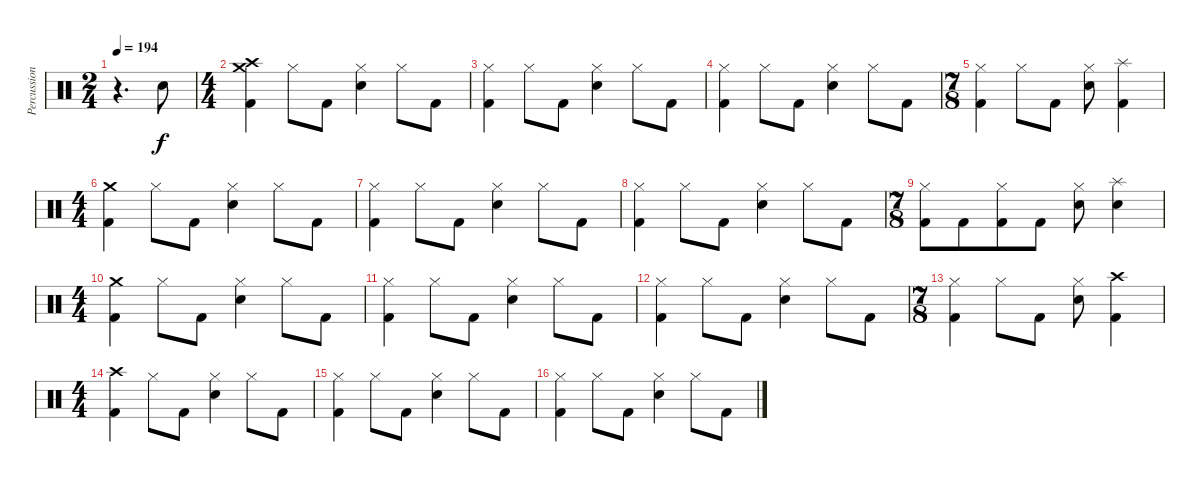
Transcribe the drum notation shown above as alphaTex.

\track ("Percussions" "Percussion") {instrument percussion}
\staff {score}
\articulation defaults
\ts (2 4)
\tempo 194
\clef neutral
\ks c
r.4{d dy f} "Electric Snare (hit)".8 |
\ts (4 4)
("Crash high (hit)" "Crash medium (hit)" "Kick (hit) 2").4 "Hi-Hat (closed)".8 "Kick (hit) 2".8 ("Hi-Hat (closed)" "Electric Snare (hit)").4 "Hi-Hat (closed)".8 "Kick (hit) 2".8 |
("Hi-Hat (closed)" "Kick (hit) 2").4 "Hi-Hat (closed)".8 "Kick (hit) 2".8 ("Hi-Hat (closed)" "Electric Snare (hit)").4 "Hi-Hat (closed)".8 "Kick (hit) 2".8 |
("Hi-Hat (closed)" "Kick (hit) 2").4 "Hi-Hat (closed)".8 "Kick (hit) 2".8 ("Hi-Hat (closed)" "Electric Snare (hit)").4 "Hi-Hat (closed)".8 "Kick (hit) 2".8 |
\ts (7 8)
("Hi-Hat (closed)" "Kick (hit) 2").4 "Hi-Hat (closed)".8 "Kick (hit) 2".8 ("Hi-Hat (closed)" "Electric Snare (hit)").8 ("Splash (hit)" "Kick (hit) 2").4 |
\ts (4 4)
("Crash medium (hit)" "Kick (hit) 2").4 "Hi-Hat (closed)".8 "Kick (hit) 2".8 ("Hi-Hat (closed)" "Electric Snare (hit)").4 "Hi-Hat (closed)".8 "Kick (hit) 2".8 |
("Hi-Hat (closed)" "Kick (hit) 2").4 "Hi-Hat (closed)".8 "Kick (hit) 2".8 ("Hi-Hat (closed)" "Electric Snare (hit)").4 "Hi-Hat (closed)".8 "Kick (hit) 2".8 |
("Hi-Hat (closed)" "Kick (hit) 2").4 "Hi-Hat (closed)".8 "Kick (hit) 2".8 ("Hi-Hat (closed)" "Electric Snare (hit)").4 "Hi-Hat (closed)".8 "Kick (hit) 2".8 |
\ts (7 8)
("Hi-Hat (closed)" "Kick (hit) 2").8 "Kick (hit) 2".8 ("Hi-Hat (closed)" "Kick (hit) 2").8 "Kick (hit) 2".8 ("Hi-Hat (closed)" "Electric Snare (hit)").8 ("Splash (hit)" "Electric Snare (hit)").4 |
\ts (4 4)
("Crash medium (hit)" "Kick (hit) 2").4 "Hi-Hat (closed)".8 "Kick (hit) 2".8 ("Hi-Hat (closed)" "Electric Snare (hit)").4 "Hi-Hat (closed)".8 "Kick (hit) 2".8 |
("Hi-Hat (closed)" "Kick (hit) 2").4 "Hi-Hat (closed)".8 "Kick (hit) 2".8 ("Hi-Hat (closed)" "Electric Snare (hit)").4 "Hi-Hat (closed)".8 "Kick (hit) 2".8 |
("Hi-Hat (closed)" "Kick (hit) 2").4 "Hi-Hat (closed)".8 "Kick (hit) 2".8 ("Hi-Hat (closed)" "Electric Snare (hit)").4 "Hi-Hat (closed)".8 "Kick (hit) 2".8 |
\ts (7 8)
("Hi-Hat (closed)" "Kick (hit) 2").4 "Hi-Hat (closed)".8 "Kick (hit) 2".8 ("Hi-Hat (closed)" "Electric Snare (hit)").8 ("Crash high (hit)" "Kick (hit) 2").4 |
\ts (4 4)
("Crash high (hit)" "Kick (hit) 2").4 "Hi-Hat (closed)".8 "Kick (hit) 2".8 ("Hi-Hat (closed)" "Electric Snare (hit)").4 "Hi-Hat (closed)".8 "Kick (hit) 2".8 |
("Hi-Hat (closed)" "Kick (hit) 2").4 "Hi-Hat (closed)".8 "Kick (hit) 2".8 ("Hi-Hat (closed)" "Electric Snare (hit)").4 "Hi-Hat (closed)".8 "Kick (hit) 2".8 |
("Hi-Hat (closed)" "Kick (hit) 2").4 "Hi-Hat (closed)".8 "Kick (hit) 2".8 ("Hi-Hat (closed)" "Electric Snare (hit)").4 "Hi-Hat (closed)".8 "Kick (hit) 2".8
